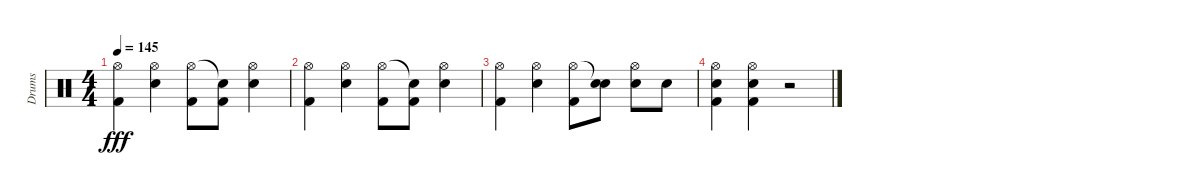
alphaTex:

\track ("Drums" "Drums") {instrument percussion}
\staff {score}
\articulation defaults
\ts (4 4)
\tempo 145
\clef neutral
\ks c
("Hi-Hat (open)" "Kick (hit) 2").4{dy fff} ("Hi-Hat (open)" "Electric Snare (hit)").4 ("Hi-Hat (open)" "Kick (hit) 2").8 ("Snare (hit)"{t} "Kick (hit) 2").8 ("Hi-Hat (open)" "Electric Snare (hit)").4 |
("Hi-Hat (open)" "Kick (hit) 2").4 ("Hi-Hat (open)" "Electric Snare (hit)").4 ("Hi-Hat (open)" "Kick (hit) 2").8 ("Snare (hit)"{t} "Kick (hit) 2").8 ("Hi-Hat (open)" "Electric Snare (hit)").4 |
("Hi-Hat (open)" "Kick (hit) 2").4 ("Hi-Hat (open)" "Electric Snare (hit)").4 ("Hi-Hat (open)" "Kick (hit) 2").8 ("Snare (hit)"{t} "Electric Snare (hit)").8 ("Hi-Hat (open)" "Electric Snare (hit)").8 "Electric Snare (hit)".8 |
("Electric Snare (hit)" "Hi-Hat (open)" "Kick (hit) 2").4 ("Electric Snare (hit)" "Hi-Hat (open)" "Kick (hit) 2").4 r.2
